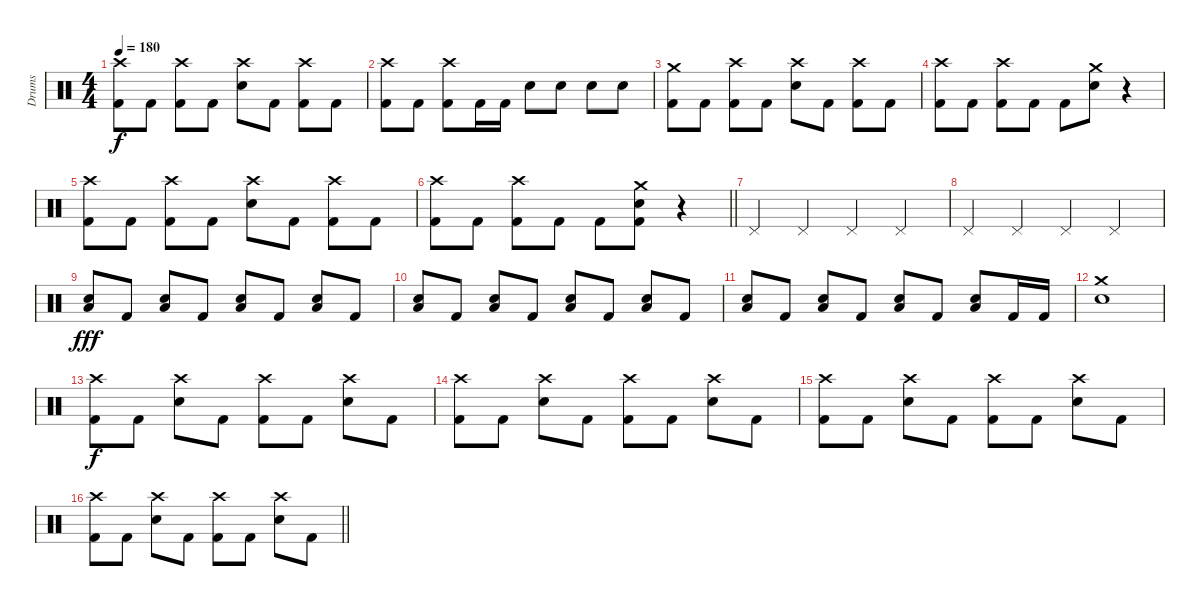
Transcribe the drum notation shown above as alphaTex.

\track ("Drums" "Drums") {instrument percussion}
\staff {score}
\articulation defaults
\ts (4 4)
\tempo 180
\clef neutral
\ks c
("Crash high (hit)" "Kick (hit) 2").8{dy f} "Kick (hit) 2".8 ("Crash high (hit)" "Kick (hit) 2").8 "Kick (hit) 2".8 ("Crash high (hit)" "Snare (hit) 2").8 "Kick (hit) 2".8 ("Crash high (hit)" "Kick (hit) 2").8 "Kick (hit) 2".8 |
("Crash high (hit)" "Kick (hit) 2").8 "Kick (hit) 2".8 ("Crash high (hit)" "Kick (hit) 2").8 "Kick (hit) 2".16 "Kick (hit) 2".16 "Snare (hit) 2".8 "Snare (hit) 2".8 "Snare (hit) 2".8 "Snare (hit) 2".8 |
("Crash medium (hit)" "Kick (hit) 2").8 "Kick (hit) 2".8 ("Crash high (hit)" "Kick (hit) 2").8 "Kick (hit) 2".8 ("Crash high (hit)" "Snare (hit) 2").8 "Kick (hit) 2".8 ("Crash high (hit)" "Kick (hit) 2").8 "Kick (hit) 2".8 |
("Crash high (hit)" "Kick (hit) 2").8 "Kick (hit) 2".8 ("Crash high (hit)" "Kick (hit) 2").8 "Kick (hit) 2".8 "Kick (hit) 2".8 ("Crash medium (hit)" "Snare (hit) 2").8 r.4 |
("Crash high (hit)" "Kick (hit) 2").8 "Kick (hit) 2".8 ("Crash high (hit)" "Kick (hit) 2").8 "Kick (hit) 2".8 ("Crash high (hit)" "Snare (hit) 2").8 "Kick (hit) 2".8 ("Crash high (hit)" "Kick (hit) 2").8 "Kick (hit) 2".8 |
\barLineRight lightlight
("Crash high (hit)" "Kick (hit) 2").8 "Kick (hit) 2".8 ("Crash high (hit)" "Kick (hit) 2").8 "Kick (hit) 2".8 "Kick (hit) 2".8 ("Crash medium (hit)" "Snare (hit) 2" "Kick (hit) 2").8 r.4 |
"Pedal Hi-Hat (hit)".4 "Pedal Hi-Hat (hit)".4 "Pedal Hi-Hat (hit)".4 "Pedal Hi-Hat (hit)".4 |
"Pedal Hi-Hat (hit)".4 "Pedal Hi-Hat (hit)".4 "Pedal Hi-Hat (hit)".4 "Pedal Hi-Hat (hit)".4 |
("Low Floor Tom (hit)" "Snare (hit) 2").8{dy fff} "Kick (hit) 2".8 ("Low Floor Tom (hit)" "Snare (hit) 2").8 "Kick (hit) 2".8 ("Low Floor Tom (hit)" "Snare (hit) 2").8 "Kick (hit) 2".8 ("Low Floor Tom (hit)" "Snare (hit) 2").8 "Kick (hit) 2".8 |
("Low Floor Tom (hit)" "Snare (hit) 2").8 "Kick (hit) 2".8 ("Low Floor Tom (hit)" "Snare (hit) 2").8 "Kick (hit) 2".8 ("Low Floor Tom (hit)" "Snare (hit) 2").8 "Kick (hit) 2".8 ("Low Floor Tom (hit)" "Snare (hit) 2").8 "Kick (hit) 2".8 |
("Low Floor Tom (hit)" "Snare (hit) 2").8 "Kick (hit) 2".8 ("Low Floor Tom (hit)" "Snare (hit) 2").8 "Kick (hit) 2".8 ("Low Floor Tom (hit)" "Snare (hit) 2").8 "Kick (hit) 2".8 ("Low Floor Tom (hit)" "Snare (hit) 2").8 "Kick (hit) 2".16 "Kick (hit) 2".16 |
("Crash medium (hit)" "Snare (hit) 2").1 |
("Crash high (hit)" "Kick (hit) 2").8{dy f} "Kick (hit) 2".8 ("Crash high (hit)" "Snare (hit) 2").8 "Kick (hit) 2".8 ("Crash high (hit)" "Kick (hit) 2").8 "Kick (hit) 2".8 ("Crash high (hit)" "Snare (hit) 2").8 "Kick (hit) 2".8 |
("Crash high (hit)" "Kick (hit) 2").8 "Kick (hit) 2".8 ("Crash high (hit)" "Snare (hit) 2").8 "Kick (hit) 2".8 ("Crash high (hit)" "Kick (hit) 2").8 "Kick (hit) 2".8 ("Crash high (hit)" "Snare (hit) 2").8 "Kick (hit) 2".8 |
("Crash high (hit)" "Kick (hit) 2").8 "Kick (hit) 2".8 ("Crash high (hit)" "Snare (hit) 2").8 "Kick (hit) 2".8 ("Crash high (hit)" "Kick (hit) 2").8 "Kick (hit) 2".8 ("Crash high (hit)" "Snare (hit) 2").8 "Kick (hit) 2".8 |
\barLineRight lightlight
("Crash high (hit)" "Kick (hit) 2").8 "Kick (hit) 2".8 ("Crash high (hit)" "Snare (hit) 2").8 "Kick (hit) 2".8 ("Crash high (hit)" "Kick (hit) 2").8 "Kick (hit) 2".8 ("Crash high (hit)" "Snare (hit) 2").8 "Kick (hit) 2".8
